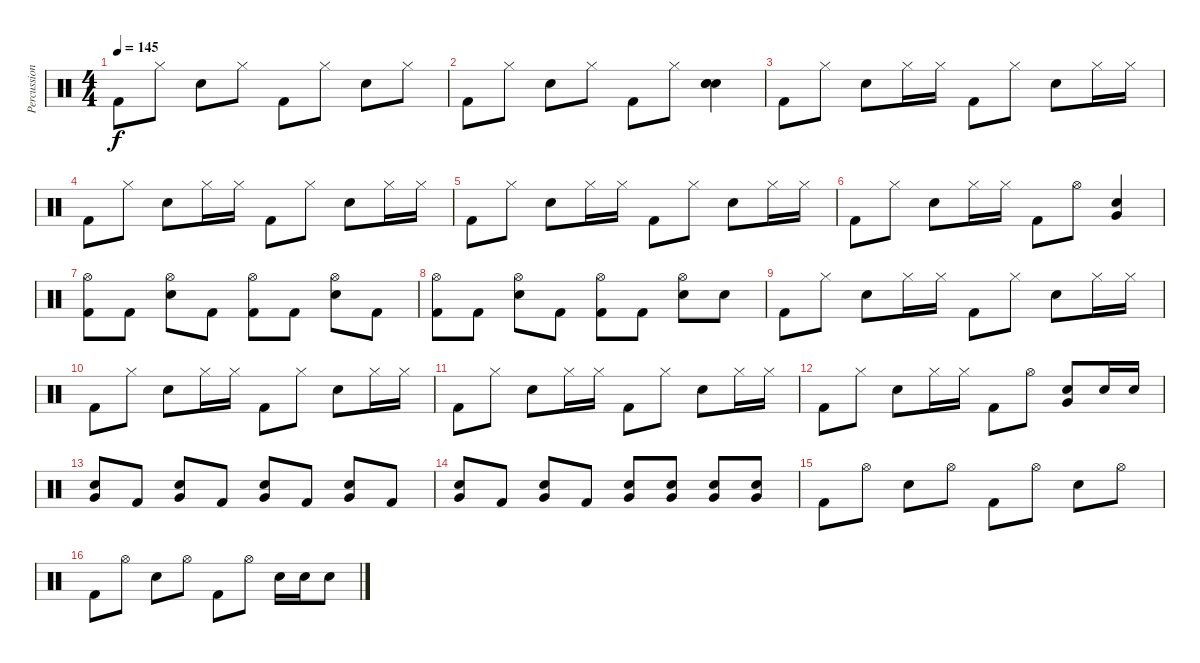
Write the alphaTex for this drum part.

\track ("Percussion" "Percussion") {instrument percussion}
\staff {score}
\articulation defaults
\ts (4 4)
\tempo 145
\clef neutral
\ks c "Kick (hit) 2".8{dy f} "Hi-Hat (closed)".8 "Electric Snare (hit)".8 "Hi-Hat (closed)".8 "Kick (hit) 2".8 "Hi-Hat (closed)".8 "Electric Snare (hit)".8 "Hi-Hat (closed)".8
|
"Kick (hit) 2".8 "Hi-Hat (closed)".8 "Electric Snare (hit)".8 "Hi-Hat (closed)".8 "Kick (hit) 2".8 "Hi-Hat (closed)".8 ("Electric Snare (hit)" "Electric Snare (hit)" "Electric Snare (hit)").4 |
"Kick (hit) 2".8 "Hi-Hat (closed)".8 "Electric Snare (hit)".8 "Hi-Hat (closed)".16 "Hi-Hat (closed)".16 "Kick (hit) 2".8 "Hi-Hat (closed)".8 "Electric Snare (hit)".8 "Hi-Hat (closed)".16 "Hi-Hat (closed)".16 |
"Kick (hit) 2".8 "Hi-Hat (closed)".8 "Electric Snare (hit)".8 "Hi-Hat (closed)".16 "Hi-Hat (closed)".16 "Kick (hit) 2".8 "Hi-Hat (closed)".8 "Electric Snare (hit)".8 "Hi-Hat (closed)".16 "Hi-Hat (closed)".16 |
"Kick (hit) 2".8 "Hi-Hat (closed)".8 "Electric Snare (hit)".8 "Hi-Hat (closed)".16 "Hi-Hat (closed)".16 "Kick (hit) 2".8 "Hi-Hat (closed)".8 "Electric Snare (hit)".8 "Hi-Hat (closed)".16 "Hi-Hat (closed)".16 |
"Kick (hit) 2".8 "Hi-Hat (closed)".8 "Electric Snare (hit)".8 "Hi-Hat (closed)".16 "Hi-Hat (closed)".16 "Kick (hit) 2".8 "Hi-Hat (open)".8 ("Electric Snare (hit)" "Very Low Tom (hit)").4 |
("Hi-Hat (open)" "Kick (hit) 2").8 "Kick (hit) 2".8 ("Hi-Hat (open)" "Electric Snare (hit)").8 "Kick (hit) 2".8 ("Hi-Hat (open)" "Kick (hit) 2").8 "Kick (hit) 2".8 ("Hi-Hat (open)" "Electric Snare (hit)").8 "Kick (hit) 2".8 |
("Hi-Hat (open)" "Kick (hit) 2").8 "Kick (hit) 2".8 ("Hi-Hat (open)" "Electric Snare (hit)").8 "Kick (hit) 2".8 ("Hi-Hat (open)" "Kick (hit) 2").8 "Kick (hit) 2".8 ("Hi-Hat (open)" "Electric Snare (hit)").8 "Electric Snare (hit)".8 |
"Kick (hit) 2".8 "Hi-Hat (closed)".8 "Electric Snare (hit)".8 "Hi-Hat (closed)".16 "Hi-Hat (closed)".16 "Kick (hit) 2".8 "Hi-Hat (closed)".8 "Electric Snare (hit)".8 "Hi-Hat (closed)".16 "Hi-Hat (closed)".16 |
"Kick (hit) 2".8 "Hi-Hat (closed)".8 "Electric Snare (hit)".8 "Hi-Hat (closed)".16 "Hi-Hat (closed)".16 "Kick (hit) 2".8 "Hi-Hat (closed)".8 "Electric Snare (hit)".8 "Hi-Hat (closed)".16 "Hi-Hat (closed)".16 |
"Kick (hit) 2".8 "Hi-Hat (closed)".8 "Electric Snare (hit)".8 "Hi-Hat (closed)".16 "Hi-Hat (closed)".16 "Kick (hit) 2".8 "Hi-Hat (closed)".8 "Electric Snare (hit)".8 "Hi-Hat (closed)".16 "Hi-Hat (closed)".16 |
"Kick (hit) 2".8 "Hi-Hat (closed)".8 "Electric Snare (hit)".8 "Hi-Hat (closed)".16 "Hi-Hat (closed)".16 "Kick (hit) 2".8 "Hi-Hat (open)".8 ("Electric Snare (hit)" "Very Low Tom (hit)").8 "Electric Snare (hit)".16 "Electric Snare (hit)".16 |
("Electric Snare (hit)" "Very Low Tom (hit)").8 "Kick (hit) 2".8 ("Electric Snare (hit)" "Very Low Tom (hit)").8 "Kick (hit) 2".8 ("Electric Snare (hit)" "Very Low Tom (hit)").8 "Kick (hit) 2".8 ("Electric Snare (hit)" "Very Low Tom (hit)").8 "Kick (hit) 2".8 |
("Electric Snare (hit)" "Very Low Tom (hit)").8 "Kick (hit) 2".8 ("Electric Snare (hit)" "Very Low Tom (hit)").8 "Kick (hit) 2".8 ("Electric Snare (hit)" "Very Low Tom (hit)").8 ("Electric Snare (hit)" "Very Low Tom (hit)").8 ("Electric Snare (hit)" "Very Low Tom (hit)").8 ("Electric Snare (hit)" "Very Low Tom (hit)").8 |
"Kick (hit) 2".8 "Hi-Hat (open)".8 "Electric Snare (hit)".8 "Hi-Hat (open)".8 "Kick (hit) 2".8 "Hi-Hat (open)".8 "Electric Snare (hit)".8 "Hi-Hat (open)".8 |
"Kick (hit) 2".8 "Hi-Hat (open)".8 "Electric Snare (hit)".8 "Hi-Hat (open)".8 "Kick (hit) 2".8 "Hi-Hat (open)".8 "Electric Snare (hit)".16 "Electric Snare (hit)".16 "Electric Snare (hit)".8
